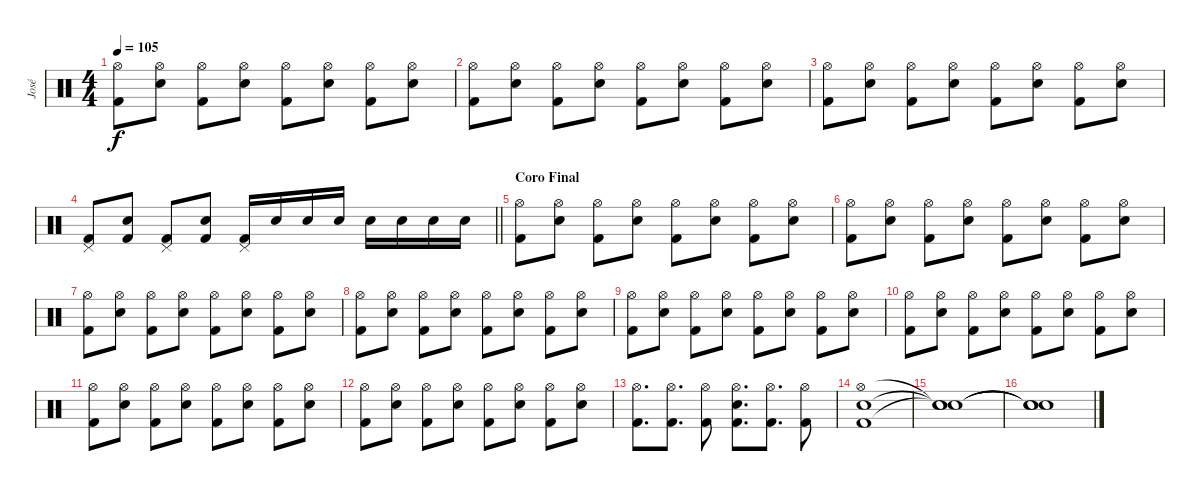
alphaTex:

\track ("José" "José") {instrument percussion}
\staff
\articulation defaults
\ts (4 4)
\tempo 105
\clef neutral
\ks c
("Hi-Hat (open)" "Kick (hit) 2").8{dy f} ("Hi-Hat (open)" "Electric Snare (hit)").8 ("Hi-Hat (open)" "Kick (hit) 2").8 ("Hi-Hat (open)" "Electric Snare (hit)").8 ("Hi-Hat (open)" "Kick (hit) 2").8 ("Hi-Hat (open)" "Electric Snare (hit)").8 ("Hi-Hat (open)" "Kick (hit) 2").8 ("Hi-Hat (open)" "Electric Snare (hit)").8 |
("Hi-Hat (open)" "Kick (hit) 2").8 ("Hi-Hat (open)" "Electric Snare (hit)").8 ("Hi-Hat (open)" "Kick (hit) 2").8 ("Hi-Hat (open)" "Electric Snare (hit)").8 ("Hi-Hat (open)" "Kick (hit) 2").8 ("Hi-Hat (open)" "Electric Snare (hit)").8 ("Hi-Hat (open)" "Kick (hit) 2").8 ("Hi-Hat (open)" "Electric Snare (hit)").8 |
("Hi-Hat (open)" "Kick (hit) 2").8 ("Hi-Hat (open)" "Electric Snare (hit)").8 ("Hi-Hat (open)" "Kick (hit) 2").8 ("Hi-Hat (open)" "Electric Snare (hit)").8 ("Hi-Hat (open)" "Kick (hit) 2").8 ("Hi-Hat (open)" "Electric Snare (hit)").8 ("Hi-Hat (open)" "Kick (hit) 2").8 ("Hi-Hat (open)" "Electric Snare (hit)").8 |
\barLineRight lightlight
("Pedal Hi-Hat (hit)" "Kick (hit) 2").8 ("Electric Snare (hit)" "Kick (hit) 2").8 ("Pedal Hi-Hat (hit)" "Kick (hit) 2").8 ("Electric Snare (hit)" "Kick (hit) 2").8 ("Pedal Hi-Hat (hit)" "Kick (hit) 2").16 "Electric Snare (hit)".16 "Electric Snare (hit)".16 "Electric Snare (hit)".16 "Electric Snare (hit)".16 "Electric Snare (hit)".16 "Electric Snare (hit)".16 "Electric Snare (hit)".16 |
\section ("" "Coro Final")
("Hi-Hat (open)" "Kick (hit) 2").8 ("Hi-Hat (open)" "Electric Snare (hit)").8 ("Hi-Hat (open)" "Kick (hit) 2").8 ("Hi-Hat (open)" "Electric Snare (hit)").8 ("Hi-Hat (open)" "Kick (hit) 2").8 ("Hi-Hat (open)" "Electric Snare (hit)").8 ("Hi-Hat (open)" "Kick (hit) 2").8 ("Hi-Hat (open)" "Electric Snare (hit)").8 |
("Hi-Hat (open)" "Kick (hit) 2").8 ("Hi-Hat (open)" "Electric Snare (hit)").8 ("Hi-Hat (open)" "Kick (hit) 2").8 ("Hi-Hat (open)" "Electric Snare (hit)").8 ("Hi-Hat (open)" "Kick (hit) 2").8 ("Hi-Hat (open)" "Electric Snare (hit)").8 ("Hi-Hat (open)" "Kick (hit) 2").8 ("Hi-Hat (open)" "Electric Snare (hit)").8 |
("Hi-Hat (open)" "Kick (hit) 2").8 ("Hi-Hat (open)" "Electric Snare (hit)").8 ("Hi-Hat (open)" "Kick (hit) 2").8 ("Hi-Hat (open)" "Electric Snare (hit)").8 ("Hi-Hat (open)" "Kick (hit) 2").8 ("Hi-Hat (open)" "Electric Snare (hit)").8 ("Hi-Hat (open)" "Kick (hit) 2").8 ("Hi-Hat (open)" "Electric Snare (hit)").8 |
("Hi-Hat (open)" "Kick (hit) 2").8 ("Hi-Hat (open)" "Electric Snare (hit)").8 ("Hi-Hat (open)" "Kick (hit) 2").8 ("Hi-Hat (open)" "Electric Snare (hit)").8 ("Hi-Hat (open)" "Kick (hit) 2").8 ("Hi-Hat (open)" "Electric Snare (hit)").8 ("Hi-Hat (open)" "Kick (hit) 2").8 ("Hi-Hat (open)" "Electric Snare (hit)").8 |
("Hi-Hat (open)" "Kick (hit) 2").8 ("Hi-Hat (open)" "Electric Snare (hit)").8 ("Hi-Hat (open)" "Kick (hit) 2").8 ("Hi-Hat (open)" "Electric Snare (hit)").8 ("Hi-Hat (open)" "Kick (hit) 2").8 ("Hi-Hat (open)" "Electric Snare (hit)").8 ("Hi-Hat (open)" "Kick (hit) 2").8 ("Hi-Hat (open)" "Electric Snare (hit)").8 |
("Hi-Hat (open)" "Kick (hit) 2").8 ("Hi-Hat (open)" "Electric Snare (hit)").8 ("Hi-Hat (open)" "Kick (hit) 2").8 ("Hi-Hat (open)" "Electric Snare (hit)").8 ("Hi-Hat (open)" "Kick (hit) 2").8 ("Hi-Hat (open)" "Electric Snare (hit)").8 ("Hi-Hat (open)" "Kick (hit) 2").8 ("Hi-Hat (open)" "Electric Snare (hit)").8 |
("Hi-Hat (open)" "Kick (hit) 2").8 ("Hi-Hat (open)" "Electric Snare (hit)").8 ("Hi-Hat (open)" "Kick (hit) 2").8 ("Hi-Hat (open)" "Electric Snare (hit)").8 ("Hi-Hat (open)" "Kick (hit) 2").8 ("Hi-Hat (open)" "Electric Snare (hit)").8 ("Hi-Hat (open)" "Kick (hit) 2").8 ("Hi-Hat (open)" "Electric Snare (hit)").8 |
("Hi-Hat (open)" "Kick (hit) 2").8 ("Hi-Hat (open)" "Electric Snare (hit)").8 ("Hi-Hat (open)" "Kick (hit) 2").8 ("Hi-Hat (open)" "Electric Snare (hit)").8 ("Hi-Hat (open)" "Kick (hit) 2").8 ("Hi-Hat (open)" "Electric Snare (hit)").8 ("Hi-Hat (open)" "Kick (hit) 2").8 ("Hi-Hat (open)" "Electric Snare (hit)").8 |
("Hi-Hat (open)" "Kick (hit) 2").8{d} ("Hi-Hat (open)" "Kick (hit) 2").8{d} ("Hi-Hat (open)" "Kick (hit) 2").8 ("Hi-Hat (open)" "Electric Snare (hit)" "Kick (hit) 2").8{d} ("Hi-Hat (open)" "Kick (hit) 2").8{d} ("Hi-Hat (open)" "Kick (hit) 2").8 |
("Hi-Hat (open)" "Electric Snare (hit)" "Kick (hit) 2").1 |
("Snare (hit)"{t} "Snare (hit)"{t} "Snare (hit)"{t}).1 |
("Snare (hit)"{t} "Snare (hit)"{t} "Snare (hit)"{t}).1
